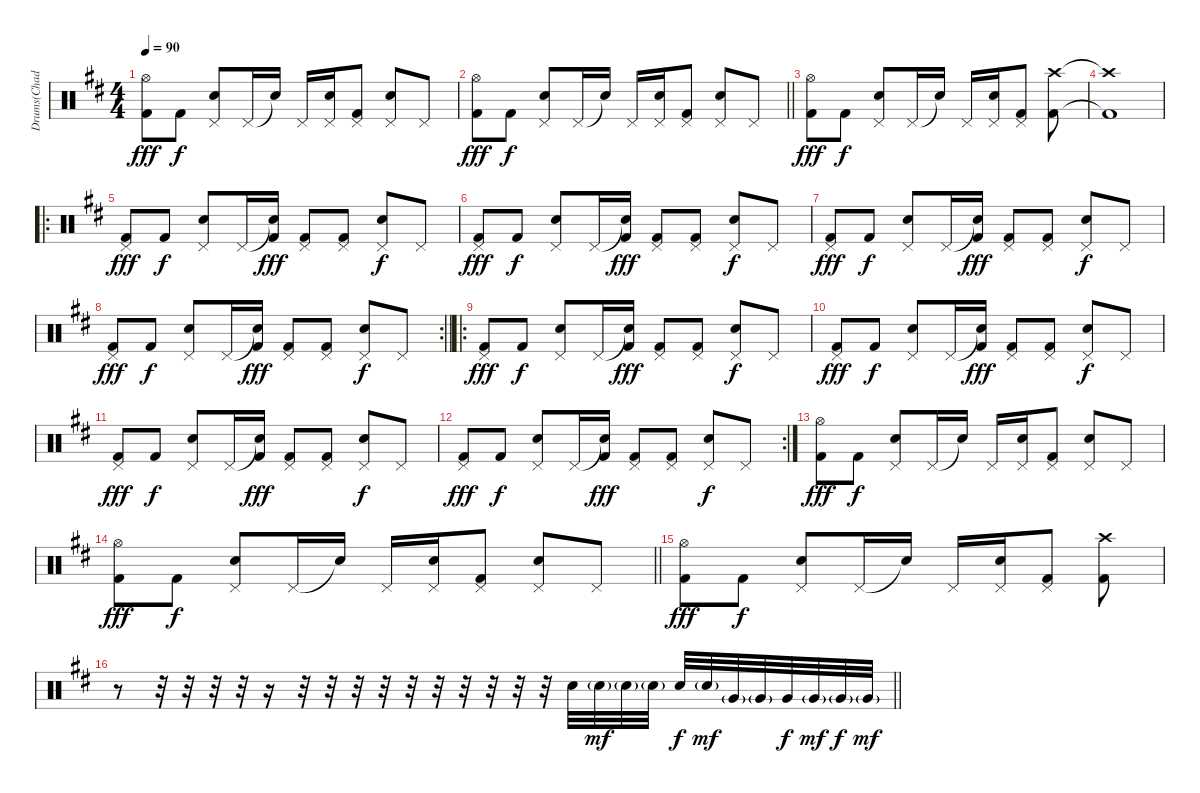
\track ("Drums(Chad Smith)" "Drums(Chad") {instrument percussion}
\staff {score}
\articulation defaults
\ts (4 4)
\tempo 90
\clef neutral
\ks d
("Hi-Hat (open)" "Kick (hit) 2").8{dy fff} "Kick (hit) 2".8{dy f} ("Pedal Hi-Hat (hit)" "Snare (hit) 2").8 "Pedal Hi-Hat (hit)".16 "Snare (hit)"{t}.16 "Pedal Hi-Hat (hit)".16 ("Pedal Hi-Hat (hit)" "Snare (hit) 2").16 ("Pedal Hi-Hat (hit)" "Kick (hit) 2").8 ("Pedal Hi-Hat (hit)" "Snare (hit) 2").8 "Pedal Hi-Hat (hit)".8 |
\barLineRight lightlight
("Hi-Hat (open)" "Kick (hit) 2").8{dy fff} "Kick (hit) 2".8{dy f} ("Pedal Hi-Hat (hit)" "Snare (hit) 2").8 "Pedal Hi-Hat (hit)".16 "Snare (hit)"{t}.16 "Pedal Hi-Hat (hit)".16 ("Pedal Hi-Hat (hit)" "Snare (hit) 2").16 ("Pedal Hi-Hat (hit)" "Kick (hit) 2").8 ("Pedal Hi-Hat (hit)" "Snare (hit) 2").8 "Pedal Hi-Hat (hit)".8 |
("Hi-Hat (open)" "Kick (hit) 2").8{dy fff} "Kick (hit) 2".8{dy f} ("Pedal Hi-Hat (hit)" "Snare (hit) 2").8 "Pedal Hi-Hat (hit)".16 "Snare (hit)"{t}.16 "Pedal Hi-Hat (hit)".16 ("Pedal Hi-Hat (hit)" "Snare (hit) 2").16 ("Pedal Hi-Hat (hit)" "Kick (hit) 2").8 ("Crash high (hit)" "Kick (hit) 2").8 |
("Crash high (hit)"{t} "Kick (hit) 2"{t}).1 |
\ro
("Pedal Hi-Hat (hit)" "Kick (hit) 2").8{dy fff} "Kick (hit) 2".8{dy f} ("Pedal Hi-Hat (hit)" "Snare (hit) 2").8 "Pedal Hi-Hat (hit)".16 ("Snare (hit)"{t} "Kick (hit) 2").16{dy fff} ("Pedal Hi-Hat (hit)" "Kick (hit) 2").8 ("Pedal Hi-Hat (hit)" "Kick (hit) 2").8 ("Pedal Hi-Hat (hit)" "Snare (hit) 2").8{dy f} "Pedal Hi-Hat (hit)".8 |
("Pedal Hi-Hat (hit)" "Kick (hit) 2").8{dy fff} "Kick (hit) 2".8{dy f} ("Pedal Hi-Hat (hit)" "Snare (hit) 2").8 "Pedal Hi-Hat (hit)".16 ("Snare (hit)"{t} "Kick (hit) 2").16{dy fff} ("Pedal Hi-Hat (hit)" "Kick (hit) 2").8 ("Pedal Hi-Hat (hit)" "Kick (hit) 2").8 ("Pedal Hi-Hat (hit)" "Snare (hit) 2").8{dy f} "Pedal Hi-Hat (hit)".8 |
("Pedal Hi-Hat (hit)" "Kick (hit) 2").8{dy fff} "Kick (hit) 2".8{dy f} ("Pedal Hi-Hat (hit)" "Snare (hit) 2").8 "Pedal Hi-Hat (hit)".16 ("Snare (hit)"{t} "Kick (hit) 2").16{dy fff} ("Pedal Hi-Hat (hit)" "Kick (hit) 2").8 ("Pedal Hi-Hat (hit)" "Kick (hit) 2").8 ("Pedal Hi-Hat (hit)" "Snare (hit) 2").8{dy f} "Pedal Hi-Hat (hit)".8 |
\rc 2
\barLineRight lightlight
("Pedal Hi-Hat (hit)" "Kick (hit) 2").8{dy fff} "Kick (hit) 2".8{dy f} ("Pedal Hi-Hat (hit)" "Snare (hit) 2").8 "Pedal Hi-Hat (hit)".16 ("Snare (hit)"{t} "Kick (hit) 2").16{dy fff} ("Pedal Hi-Hat (hit)" "Kick (hit) 2").8 ("Pedal Hi-Hat (hit)" "Kick (hit) 2").8 ("Pedal Hi-Hat (hit)" "Snare (hit) 2").8{dy f} "Pedal Hi-Hat (hit)".8 |
\ro
("Pedal Hi-Hat (hit)" "Kick (hit) 2").8{dy fff} "Kick (hit) 2".8{dy f} ("Pedal Hi-Hat (hit)" "Snare (hit) 2").8 "Pedal Hi-Hat (hit)".16 ("Snare (hit)"{t} "Kick (hit) 2").16{dy fff} ("Pedal Hi-Hat (hit)" "Kick (hit) 2").8 ("Pedal Hi-Hat (hit)" "Kick (hit) 2").8 ("Pedal Hi-Hat (hit)" "Snare (hit) 2").8{dy f} "Pedal Hi-Hat (hit)".8 |
("Pedal Hi-Hat (hit)" "Kick (hit) 2").8{dy fff} "Kick (hit) 2".8{dy f} ("Pedal Hi-Hat (hit)" "Snare (hit) 2").8 "Pedal Hi-Hat (hit)".16 ("Snare (hit)"{t} "Kick (hit) 2").16{dy fff} ("Pedal Hi-Hat (hit)" "Kick (hit) 2").8 ("Pedal Hi-Hat (hit)" "Kick (hit) 2").8 ("Pedal Hi-Hat (hit)" "Snare (hit) 2").8{dy f} "Pedal Hi-Hat (hit)".8 |
("Pedal Hi-Hat (hit)" "Kick (hit) 2").8{dy fff} "Kick (hit) 2".8{dy f} ("Pedal Hi-Hat (hit)" "Snare (hit) 2").8 "Pedal Hi-Hat (hit)".16 ("Snare (hit)"{t} "Kick (hit) 2").16{dy fff} ("Pedal Hi-Hat (hit)" "Kick (hit) 2").8 ("Pedal Hi-Hat (hit)" "Kick (hit) 2").8 ("Pedal Hi-Hat (hit)" "Snare (hit) 2").8{dy f} "Pedal Hi-Hat (hit)".8 |
\rc 2
("Pedal Hi-Hat (hit)" "Kick (hit) 2").8{dy fff} "Kick (hit) 2".8{dy f} ("Pedal Hi-Hat (hit)" "Snare (hit) 2").8 "Pedal Hi-Hat (hit)".16 ("Snare (hit)"{t} "Kick (hit) 2").16{dy fff} ("Pedal Hi-Hat (hit)" "Kick (hit) 2").8 ("Pedal Hi-Hat (hit)" "Kick (hit) 2").8 ("Pedal Hi-Hat (hit)" "Snare (hit) 2").8{dy f} "Pedal Hi-Hat (hit)".8 |
("Hi-Hat (open)" "Kick (hit) 2").8{dy fff} "Kick (hit) 2".8{dy f} ("Pedal Hi-Hat (hit)" "Snare (hit) 2").8 "Pedal Hi-Hat (hit)".16 "Snare (hit)"{t}.16 "Pedal Hi-Hat (hit)".16 ("Pedal Hi-Hat (hit)" "Snare (hit) 2").16 ("Pedal Hi-Hat (hit)" "Kick (hit) 2").8 ("Pedal Hi-Hat (hit)" "Snare (hit) 2").8 "Pedal Hi-Hat (hit)".8 |
\barLineRight lightlight
("Hi-Hat (open)" "Kick (hit) 2").8{dy fff} "Kick (hit) 2".8{dy f} ("Pedal Hi-Hat (hit)" "Snare (hit) 2").8 "Pedal Hi-Hat (hit)".16 "Snare (hit)"{t}.16 "Pedal Hi-Hat (hit)".16 ("Pedal Hi-Hat (hit)" "Snare (hit) 2").16 ("Pedal Hi-Hat (hit)" "Kick (hit) 2").8 ("Pedal Hi-Hat (hit)" "Snare (hit) 2").8 "Pedal Hi-Hat (hit)".8 |
("Hi-Hat (open)" "Kick (hit) 2").8{dy fff} "Kick (hit) 2".8{dy f} ("Pedal Hi-Hat (hit)" "Snare (hit) 2").8 "Pedal Hi-Hat (hit)".16 "Snare (hit)"{t}.16 "Pedal Hi-Hat (hit)".16 ("Pedal Hi-Hat (hit)" "Snare (hit) 2").16 ("Pedal Hi-Hat (hit)" "Kick (hit) 2").8 ("Crash high (hit)" "Kick (hit) 2").8 |
\barLineRight lightlight
r.8 r.32 r.32 r.32 r.32 r.16 r.32 r.32 r.32 r.32 r.32 r.32 r.32 r.32 r.32 r.32 "Electric Snare (hit)".32 "Electric Snare (hit)"{g}.32{dy mf} "Electric Snare (hit)"{g}.32 "Electric Snare (hit)"{g}.32 "Electric Snare (hit)".32{dy f} "Electric Snare (hit)"{g}.32{dy mf} "Very Low Tom (hit)"{g}.32 "Very Low Tom (hit)"{g}.32 "Very Low Tom (hit)".32{dy f} "Very Low Tom (hit)"{g}.32{dy mf} "Very Low Tom (hit)"{g}.32{dy f} "Very Low Tom (hit)"{g}.32{dy mf}
